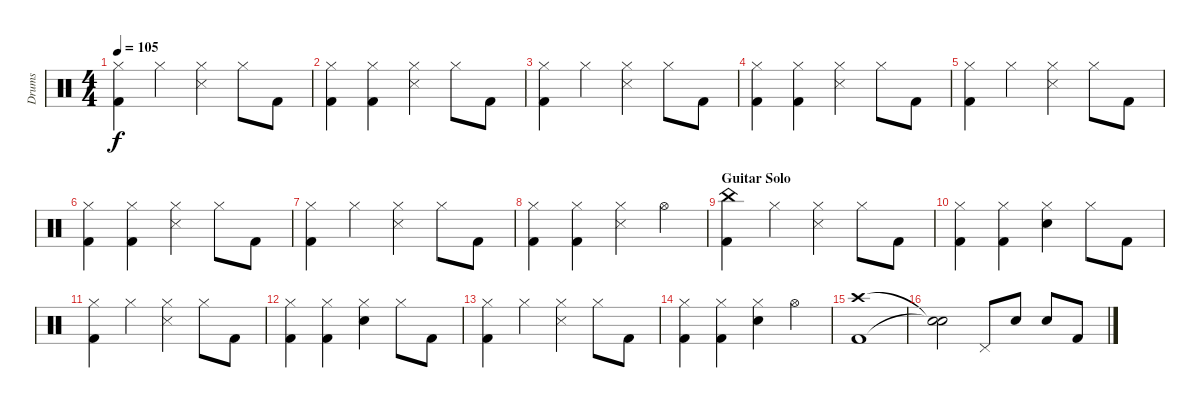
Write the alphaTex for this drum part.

\track ("Drums" "Drums") {instrument percussion}
\staff {score}
\articulation defaults
\ts (4 4)
\tempo 105
\clef neutral
\ks c
("Hi-Hat (closed)" "Kick (hit) 2").4{dy f} "Hi-Hat (closed)".4 ("Hi-Hat (closed)" "Snare (side stick) 3").4 "Hi-Hat (closed)".8 "Kick (hit) 2".8 |
("Hi-Hat (closed)" "Kick (hit) 2").4 ("Hi-Hat (closed)" "Kick (hit) 2").4 ("Hi-Hat (closed)" "Snare (side stick) 3").4 "Hi-Hat (closed)".8 "Kick (hit) 2".8 |
("Hi-Hat (closed)" "Kick (hit) 2").4 "Hi-Hat (closed)".4 ("Hi-Hat (closed)" "Snare (side stick) 3").4 "Hi-Hat (closed)".8 "Kick (hit) 2".8 |
("Hi-Hat (closed)" "Kick (hit) 2").4 ("Hi-Hat (closed)" "Kick (hit) 2").4 ("Hi-Hat (closed)" "Snare (side stick) 3").4 "Hi-Hat (closed)".8 "Kick (hit) 2".8 |
("Hi-Hat (closed)" "Kick (hit) 2").4 "Hi-Hat (closed)".4 ("Hi-Hat (closed)" "Snare (side stick) 3").4 "Hi-Hat (closed)".8 "Kick (hit) 2".8 |
("Hi-Hat (closed)" "Kick (hit) 2").4 ("Hi-Hat (closed)" "Kick (hit) 2").4 ("Hi-Hat (closed)" "Snare (side stick) 3").4 "Hi-Hat (closed)".8 "Kick (hit) 2".8 |
("Hi-Hat (closed)" "Kick (hit) 2").4 "Hi-Hat (closed)".4 ("Hi-Hat (closed)" "Snare (side stick) 3").4 "Hi-Hat (closed)".8 "Kick (hit) 2".8 |
("Hi-Hat (closed)" "Kick (hit) 2").4 ("Hi-Hat (closed)" "Kick (hit) 2").4 ("Hi-Hat (closed)" "Snare (side stick) 3").4 "Hi-Hat (open)".4 |
\section ("" "Guitar Solo")
("China (hit)" "Kick (hit) 2").4 "Hi-Hat (closed)".4 ("Hi-Hat (closed)" "Snare (side stick) 3").4 "Hi-Hat (closed)".8 "Kick (hit) 2".8 |
("Hi-Hat (closed)" "Kick (hit) 2").4 ("Hi-Hat (closed)" "Kick (hit) 2").4 ("Hi-Hat (closed)" "Electric Snare (hit)").4 "Hi-Hat (closed)".8 "Kick (hit) 2".8 |
("Hi-Hat (closed)" "Kick (hit) 2").4 "Hi-Hat (closed)".4 ("Hi-Hat (closed)" "Snare (side stick) 3").4 "Hi-Hat (closed)".8 "Kick (hit) 2".8 |
("Hi-Hat (closed)" "Kick (hit) 2").4 ("Hi-Hat (closed)" "Kick (hit) 2").4 ("Hi-Hat (closed)" "Electric Snare (hit)").4 "Hi-Hat (closed)".8 "Kick (hit) 2".8 |
("Hi-Hat (closed)" "Kick (hit) 2").4 "Hi-Hat (closed)".4 ("Hi-Hat (closed)" "Snare (side stick) 3").4 "Hi-Hat (closed)".8 "Kick (hit) 2".8 |
("Hi-Hat (closed)" "Kick (hit) 2").4 ("Hi-Hat (closed)" "Kick (hit) 2").4 ("Hi-Hat (closed)" "Electric Snare (hit)").4 "Hi-Hat (open)".4 |
("Crash high (hit)" "Kick (hit) 2").1 |
("Snare (hit)"{t} "Snare (hit)"{t}).2 "Pedal Hi-Hat (hit)".8 "Electric Snare (hit)".8 "Electric Snare (hit)".8 "Kick (hit) 2".8
